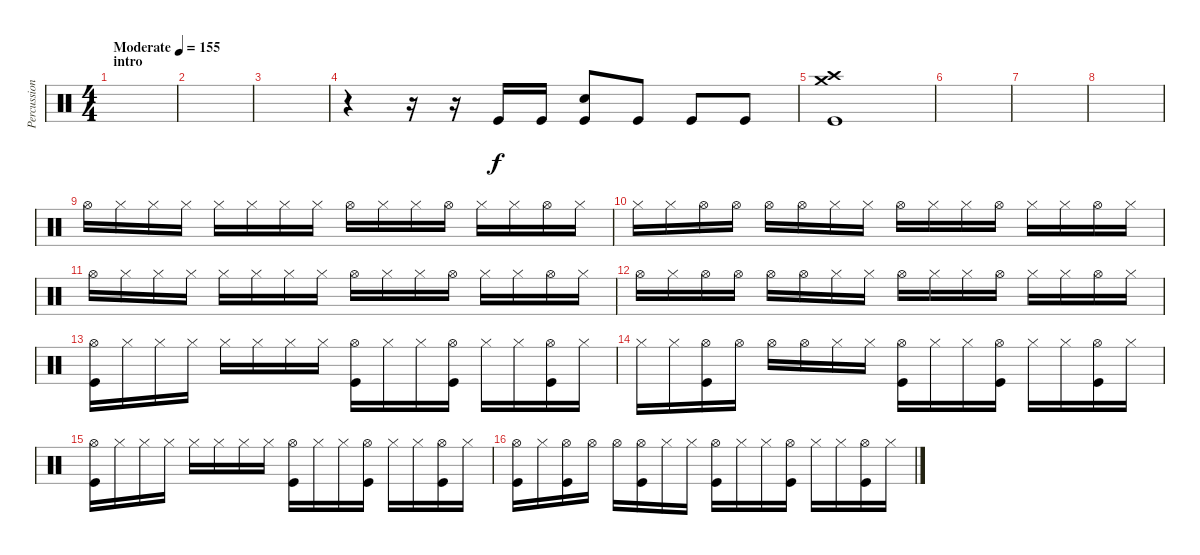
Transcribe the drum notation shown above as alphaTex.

\track ("Percussion" "Percussion") {instrument percussion}
\staff {score}
\articulation defaults
\ts (4 4)
\section ("" "intro")
\tempo (155 "Moderate")
\clef neutral
\ks c
|
|
|
r.4 r.16 r.16 "Kick (hit)".16 "Kick (hit)".16 ("Snare (hit) 2" "Kick (hit)").8 "Kick (hit)".8 "Kick (hit)".8 "Kick (hit)".8 |
("Crash high (hit)" "Crash medium (hit)" "Kick (hit)").1 |
|
|
|
"Hi-Hat (open)".16 "Hi-Hat (closed)".16 "Hi-Hat (closed)".16 "Hi-Hat (closed)".16 "Hi-Hat (closed)".16 "Hi-Hat (closed)".16 "Hi-Hat (closed)".16 "Hi-Hat (closed)".16 "Hi-Hat (open)".16 "Hi-Hat (closed)".16 "Hi-Hat (closed)".16 "Hi-Hat (open)".16 "Hi-Hat (closed)".16 "Hi-Hat (closed)".16 "Hi-Hat (open)".16 "Hi-Hat (closed)".16 |
"Hi-Hat (closed)".16 "Hi-Hat (closed)".16 "Hi-Hat (open)".16 "Hi-Hat (open)".16 "Hi-Hat (open)".16 "Hi-Hat (open)".16 "Hi-Hat (closed)".16 "Hi-Hat (closed)".16 "Hi-Hat (open)".16 "Hi-Hat (closed)".16 "Hi-Hat (closed)".16 "Hi-Hat (open)".16 "Hi-Hat (closed)".16 "Hi-Hat (closed)".16 "Hi-Hat (open)".16 "Hi-Hat (closed)".16 |
"Hi-Hat (open)".16 "Hi-Hat (closed)".16 "Hi-Hat (closed)".16 "Hi-Hat (closed)".16 "Hi-Hat (closed)".16 "Hi-Hat (closed)".16 "Hi-Hat (closed)".16 "Hi-Hat (closed)".16 "Hi-Hat (open)".16 "Hi-Hat (closed)".16 "Hi-Hat (closed)".16 "Hi-Hat (open)".16 "Hi-Hat (closed)".16 "Hi-Hat (closed)".16 "Hi-Hat (open)".16 "Hi-Hat (closed)".16 |
"Hi-Hat (open)".16 "Hi-Hat (closed)".16 "Hi-Hat (open)".16 "Hi-Hat (open)".16 "Hi-Hat (open)".16 "Hi-Hat (open)".16 "Hi-Hat (closed)".16 "Hi-Hat (closed)".16 "Hi-Hat (open)".16 "Hi-Hat (closed)".16 "Hi-Hat (closed)".16 "Hi-Hat (open)".16 "Hi-Hat (closed)".16 "Hi-Hat (closed)".16 "Hi-Hat (open)".16 "Hi-Hat (closed)".16 |
("Hi-Hat (open)" "Kick (hit)").16 "Hi-Hat (closed)".16 "Hi-Hat (closed)".16 "Hi-Hat (closed)".16 "Hi-Hat (closed)".16 "Hi-Hat (closed)".16 "Hi-Hat (closed)".16 "Hi-Hat (closed)".16 ("Hi-Hat (open)" "Kick (hit)").16 "Hi-Hat (closed)".16 "Hi-Hat (closed)".16 ("Hi-Hat (open)" "Kick (hit)").16 "Hi-Hat (closed)".16 "Hi-Hat (closed)".16 ("Hi-Hat (open)" "Kick (hit)").16 "Hi-Hat (closed)".16 |
"Hi-Hat (closed)".16 "Hi-Hat (closed)".16 ("Hi-Hat (open)" "Kick (hit)").16 "Hi-Hat (open)".16 "Hi-Hat (open)".16 "Hi-Hat (open)".16 "Hi-Hat (closed)".16 "Hi-Hat (closed)".16 ("Hi-Hat (open)" "Kick (hit)").16 "Hi-Hat (closed)".16 "Hi-Hat (closed)".16 ("Hi-Hat (open)" "Kick (hit)").16 "Hi-Hat (closed)".16 "Hi-Hat (closed)".16 ("Hi-Hat (open)" "Kick (hit)").16 "Hi-Hat (closed)".16 |
("Hi-Hat (open)" "Kick (hit)").16 "Hi-Hat (closed)".16 "Hi-Hat (closed)".16 "Hi-Hat (closed)".16 "Hi-Hat (closed)".16 "Hi-Hat (closed)".16 "Hi-Hat (closed)".16 "Hi-Hat (closed)".16 ("Hi-Hat (open)" "Kick (hit)").16 "Hi-Hat (closed)".16 "Hi-Hat (closed)".16 ("Hi-Hat (open)" "Kick (hit)").16 "Hi-Hat (closed)".16 "Hi-Hat (closed)".16 ("Hi-Hat (open)" "Kick (hit)").16 "Hi-Hat (closed)".16 |
("Hi-Hat (open)" "Kick (hit)").16 "Hi-Hat (closed)".16 ("Hi-Hat (open)" "Kick (hit)").16 "Hi-Hat (open)".16 "Hi-Hat (open)".16 ("Hi-Hat (open)" "Kick (hit)").16 "Hi-Hat (closed)".16 "Hi-Hat (closed)".16 ("Hi-Hat (open)" "Kick (hit)").16 "Hi-Hat (closed)".16 "Hi-Hat (closed)".16 ("Hi-Hat (open)" "Kick (hit)").16 "Hi-Hat (closed)".16 "Hi-Hat (closed)".16 ("Hi-Hat (open)" "Kick (hit)").16 "Hi-Hat (closed)".16
